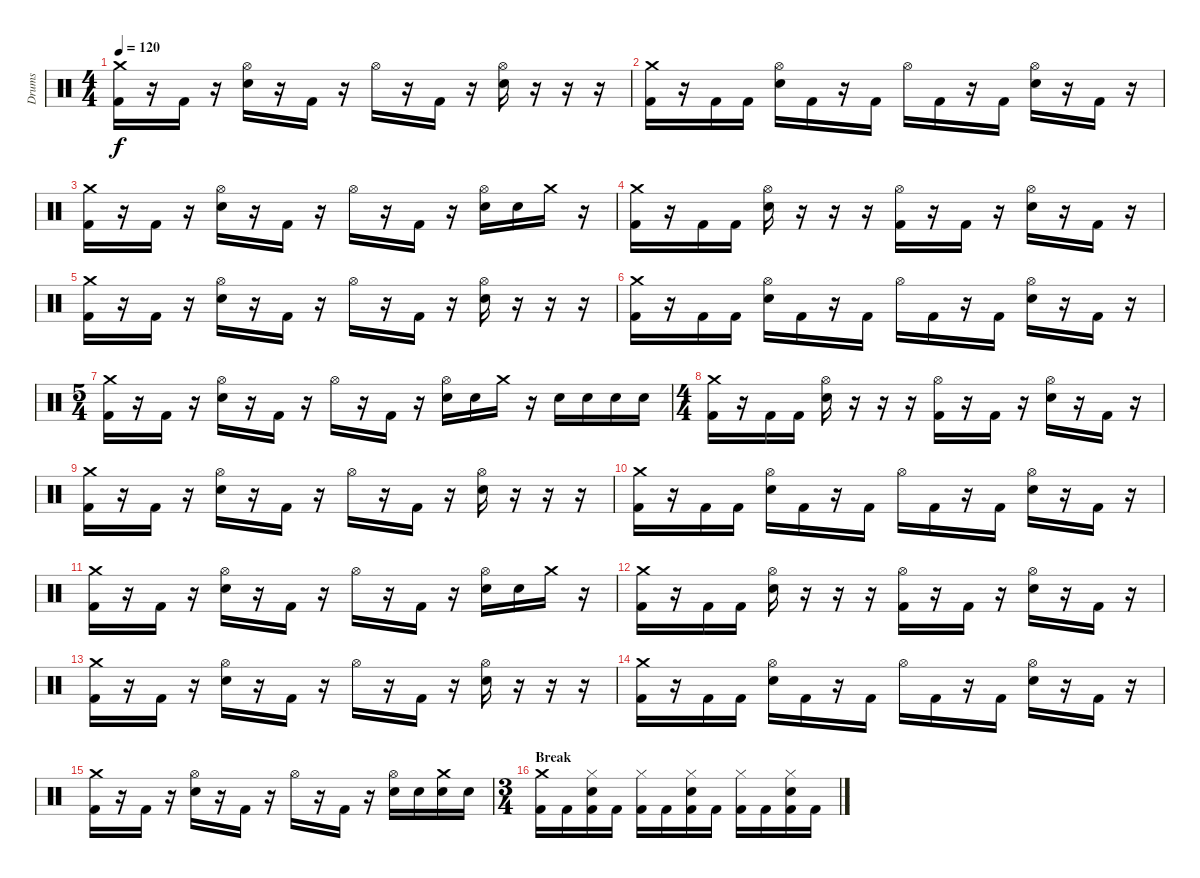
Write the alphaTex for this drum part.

\track ("Drums" "Drums") {instrument percussion}
\staff {score}
\articulation defaults
\ts (4 4)
\tempo 120
\clef neutral
\ks c
("Crash medium (hit)" "Kick (hit) 2").16{dy f} r.16 "Kick (hit) 2".16 r.16 ("Hi-Hat (open)" "Electric Snare (hit)").16 r.16 "Kick (hit) 2".16 r.16 "Hi-Hat (open)".16 r.16 "Kick (hit) 2".16 r.16 ("Hi-Hat (open)" "Electric Snare (hit)").16 r.16 r.16 r.16 |
("Crash medium (hit)" "Kick (hit) 2").16 r.16 "Kick (hit) 2".16 "Kick (hit) 2".16 ("Hi-Hat (open)" "Electric Snare (hit)").16 "Kick (hit) 2".16 r.16 "Kick (hit) 2".16 "Hi-Hat (open)".16 "Kick (hit) 2".16 r.16 "Kick (hit) 2".16 ("Hi-Hat (open)" "Electric Snare (hit)").16 r.16 "Kick (hit) 2".16 r.16 |
("Crash medium (hit)" "Kick (hit) 2").16 r.16 "Kick (hit) 2".16 r.16 ("Hi-Hat (open)" "Electric Snare (hit)").16 r.16 "Kick (hit) 2".16 r.16 "Hi-Hat (open)".16 r.16 "Kick (hit) 2".16 r.16 ("Hi-Hat (open)" "Electric Snare (hit)").16 "Electric Snare (hit)".16 "Crash medium (hit)".16 r.16 |
("Crash medium (hit)" "Kick (hit) 2").16 r.16 "Kick (hit) 2".16 "Kick (hit) 2".16 ("Hi-Hat (open)" "Electric Snare (hit)").16 r.16 r.16 r.16 ("Hi-Hat (open)" "Kick (hit) 2").16 r.16 "Kick (hit) 2".16 r.16 ("Hi-Hat (open)" "Electric Snare (hit)").16 r.16 "Kick (hit) 2".16 r.16 |
("Crash medium (hit)" "Kick (hit) 2").16 r.16 "Kick (hit) 2".16 r.16 ("Hi-Hat (open)" "Electric Snare (hit)").16 r.16 "Kick (hit) 2".16 r.16 "Hi-Hat (open)".16 r.16 "Kick (hit) 2".16 r.16 ("Hi-Hat (open)" "Electric Snare (hit)").16 r.16 r.16 r.16 |
("Crash medium (hit)" "Kick (hit) 2").16 r.16 "Kick (hit) 2".16 "Kick (hit) 2".16 ("Hi-Hat (open)" "Electric Snare (hit)").16 "Kick (hit) 2".16 r.16 "Kick (hit) 2".16 "Hi-Hat (open)".16 "Kick (hit) 2".16 r.16 "Kick (hit) 2".16 ("Hi-Hat (open)" "Electric Snare (hit)").16 r.16 "Kick (hit) 2".16 r.16 |
\ts (5 4)
("Crash medium (hit)" "Kick (hit) 2").16 r.16 "Kick (hit) 2".16 r.16 ("Hi-Hat (open)" "Electric Snare (hit)").16 r.16 "Kick (hit) 2".16 r.16 "Hi-Hat (open)".16 r.16 "Kick (hit) 2".16 r.16 ("Hi-Hat (open)" "Electric Snare (hit)").16 "Electric Snare (hit)".16 "Crash medium (hit)".16 r.16 "Electric Snare (hit)".16 "Electric Snare (hit)".16 "Electric Snare (hit)".16 "Electric Snare (hit)".16 |
\ts (4 4)
("Crash medium (hit)" "Kick (hit) 2").16 r.16 "Kick (hit) 2".16 "Kick (hit) 2".16 ("Hi-Hat (open)" "Electric Snare (hit)").16 r.16 r.16 r.16 ("Hi-Hat (open)" "Kick (hit) 2").16 r.16 "Kick (hit) 2".16 r.16 ("Hi-Hat (open)" "Electric Snare (hit)").16 r.16 "Kick (hit) 2".16 r.16 |
("Crash medium (hit)" "Kick (hit) 2").16 r.16 "Kick (hit) 2".16 r.16 ("Hi-Hat (open)" "Electric Snare (hit)").16 r.16 "Kick (hit) 2".16 r.16 "Hi-Hat (open)".16 r.16 "Kick (hit) 2".16 r.16 ("Hi-Hat (open)" "Electric Snare (hit)").16 r.16 r.16 r.16 |
("Crash medium (hit)" "Kick (hit) 2").16 r.16 "Kick (hit) 2".16 "Kick (hit) 2".16 ("Hi-Hat (open)" "Electric Snare (hit)").16 "Kick (hit) 2".16 r.16 "Kick (hit) 2".16 "Hi-Hat (open)".16 "Kick (hit) 2".16 r.16 "Kick (hit) 2".16 ("Hi-Hat (open)" "Electric Snare (hit)").16 r.16 "Kick (hit) 2".16 r.16 |
("Crash medium (hit)" "Kick (hit) 2").16 r.16 "Kick (hit) 2".16 r.16 ("Hi-Hat (open)" "Electric Snare (hit)").16 r.16 "Kick (hit) 2".16 r.16 "Hi-Hat (open)".16 r.16 "Kick (hit) 2".16 r.16 ("Hi-Hat (open)" "Electric Snare (hit)").16 "Electric Snare (hit)".16 "Crash medium (hit)".16 r.16 |
("Crash medium (hit)" "Kick (hit) 2").16 r.16 "Kick (hit) 2".16 "Kick (hit) 2".16 ("Hi-Hat (open)" "Electric Snare (hit)").16 r.16 r.16 r.16 ("Hi-Hat (open)" "Kick (hit) 2").16 r.16 "Kick (hit) 2".16 r.16 ("Hi-Hat (open)" "Electric Snare (hit)").16 r.16 "Kick (hit) 2".16 r.16 |
("Crash medium (hit)" "Kick (hit) 2").16 r.16 "Kick (hit) 2".16 r.16 ("Hi-Hat (open)" "Electric Snare (hit)").16 r.16 "Kick (hit) 2".16 r.16 "Hi-Hat (open)".16 r.16 "Kick (hit) 2".16 r.16 ("Hi-Hat (open)" "Electric Snare (hit)").16 r.16 r.16 r.16 |
("Crash medium (hit)" "Kick (hit) 2").16 r.16 "Kick (hit) 2".16 "Kick (hit) 2".16 ("Hi-Hat (open)" "Electric Snare (hit)").16 "Kick (hit) 2".16 r.16 "Kick (hit) 2".16 "Hi-Hat (open)".16 "Kick (hit) 2".16 r.16 "Kick (hit) 2".16 ("Hi-Hat (open)" "Electric Snare (hit)").16 r.16 "Kick (hit) 2".16 r.16 |
("Crash medium (hit)" "Kick (hit) 2").16 r.16 "Kick (hit) 2".16 r.16 ("Hi-Hat (open)" "Electric Snare (hit)").16 r.16 "Kick (hit) 2".16 r.16 "Hi-Hat (open)".16 r.16 "Kick (hit) 2".16 r.16 ("Hi-Hat (open)" "Electric Snare (hit)").16 "Electric Snare (hit)".16 ("Crash medium (hit)" "Electric Snare (hit)").16 "Electric Snare (hit)".16 |
\ts (3 4)
\section ("" "Break")
("Crash medium (hit)" "Kick (hit) 2").16 "Kick (hit) 2".16 ("Hi-Hat (closed)" "Electric Snare (hit)" "Kick (hit) 2").16 "Kick (hit) 2".16 ("Hi-Hat (closed)" "Kick (hit) 2").16 "Kick (hit) 2".16 ("Hi-Hat (closed)" "Electric Snare (hit)" "Kick (hit) 2").16 "Kick (hit) 2".16 ("Hi-Hat (closed)" "Kick (hit) 2").16 "Kick (hit) 2".16 ("Hi-Hat (closed)" "Electric Snare (hit)" "Kick (hit) 2").16 "Kick (hit) 2".16
